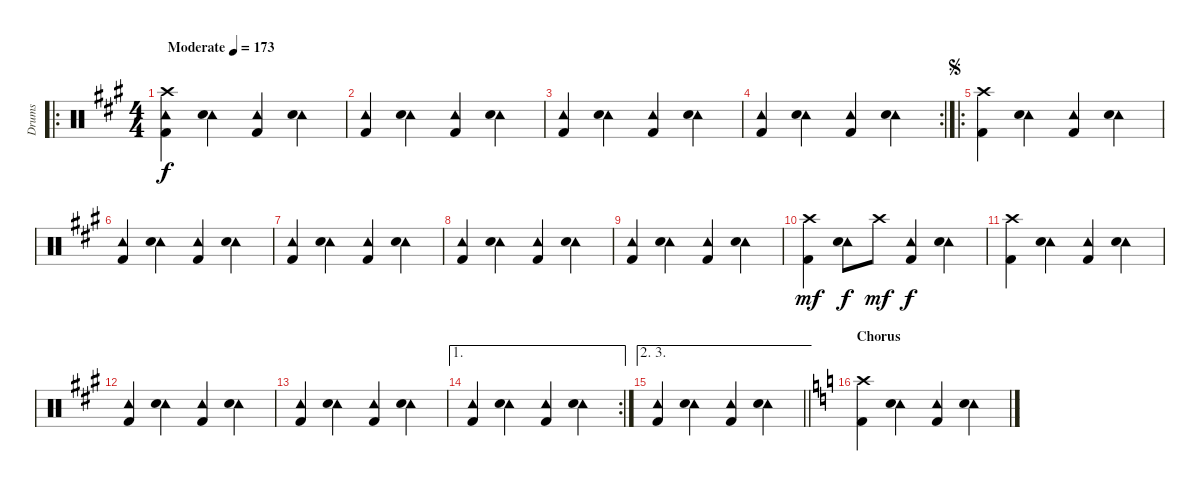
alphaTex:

\track ("Drums" "Drums") {instrument percussion}
\staff {score}
\articulation defaults
\ro
\ts (4 4)
\tempo (173 "Moderate")
\clef neutral
\ks a
("Crash high (hit)" "Tambourine (hit)" "Kick (hit) 2").4{dy f} ("Tambourine (hit)" "Snare (hit) 2").4 ("Tambourine (hit)" "Kick (hit) 2").4 ("Tambourine (hit)" "Snare (hit) 2").4 |
("Tambourine (hit)" "Kick (hit) 2").4 ("Tambourine (hit)" "Snare (hit) 2").4 ("Tambourine (hit)" "Kick (hit) 2").4 ("Tambourine (hit)" "Snare (hit) 2").4 |
("Tambourine (hit)" "Kick (hit) 2").4 ("Tambourine (hit)" "Snare (hit) 2").4 ("Tambourine (hit)" "Kick (hit) 2").4 ("Tambourine (hit)" "Snare (hit) 2").4 |
\rc 2
("Tambourine (hit)" "Kick (hit) 2").4 ("Tambourine (hit)" "Snare (hit) 2").4 ("Tambourine (hit)" "Kick (hit) 2").4 ("Tambourine (hit)" "Snare (hit) 2").4 |
\ro
\jump segno
("Crash high (hit)" "Kick (hit) 2").4 ("Tambourine (hit)" "Snare (hit) 2").4 ("Tambourine (hit)" "Kick (hit) 2").4 ("Tambourine (hit)" "Snare (hit) 2").4 |
("Tambourine (hit)" "Kick (hit) 2").4 ("Tambourine (hit)" "Snare (hit) 2").4 ("Tambourine (hit)" "Kick (hit) 2").4 ("Tambourine (hit)" "Snare (hit) 2").4 |
("Tambourine (hit)" "Kick (hit) 2").4 ("Tambourine (hit)" "Snare (hit) 2").4 ("Tambourine (hit)" "Kick (hit) 2").4 ("Tambourine (hit)" "Snare (hit) 2").4 |
("Tambourine (hit)" "Kick (hit) 2").4 ("Tambourine (hit)" "Snare (hit) 2").4 ("Tambourine (hit)" "Kick (hit) 2").4 ("Tambourine (hit)" "Snare (hit) 2").4 |
("Tambourine (hit)" "Kick (hit) 2").4 ("Tambourine (hit)" "Snare (hit) 2").4 ("Tambourine (hit)" "Kick (hit) 2").4 ("Tambourine (hit)" "Snare (hit) 2").4 |
("Crash high (hit)" "Kick (hit) 2").4{dy mf} ("Tambourine (hit)" "Snare (hit) 2").8{dy f} "Crash high (hit)".8{dy mf} ("Tambourine (hit)" "Kick (hit) 2").4{dy f} ("Tambourine (hit)" "Snare (hit) 2").4 |
("Crash high (hit)" "Kick (hit) 2").4 ("Tambourine (hit)" "Snare (hit) 2").4 ("Tambourine (hit)" "Kick (hit) 2").4 ("Tambourine (hit)" "Snare (hit) 2").4 |
("Tambourine (hit)" "Kick (hit) 2").4 ("Tambourine (hit)" "Snare (hit) 2").4 ("Tambourine (hit)" "Kick (hit) 2").4 ("Tambourine (hit)" "Snare (hit) 2").4 |
("Tambourine (hit)" "Kick (hit) 2").4 ("Tambourine (hit)" "Snare (hit) 2").4 ("Tambourine (hit)" "Kick (hit) 2").4 ("Tambourine (hit)" "Snare (hit) 2").4 |
\ae 1
\rc 2
("Tambourine (hit)" "Kick (hit) 2").4 ("Tambourine (hit)" "Snare (hit) 2").4 ("Tambourine (hit)" "Kick (hit) 2").4 ("Tambourine (hit)" "Snare (hit) 2").4 |
\ae (2 3)
\barLineRight lightlight
("Tambourine (hit)" "Kick (hit) 2").4 ("Tambourine (hit)" "Snare (hit) 2").4 ("Tambourine (hit)" "Kick (hit) 2").4 ("Tambourine (hit)" "Snare (hit) 2").4 |
\section ("" "Chorus")
\ks c
("Crash high (hit)" "Kick (hit) 2").4 ("Tambourine (hit)" "Snare (hit) 2").4 ("Tambourine (hit)" "Kick (hit) 2").4 ("Tambourine (hit)" "Snare (hit) 2").4
